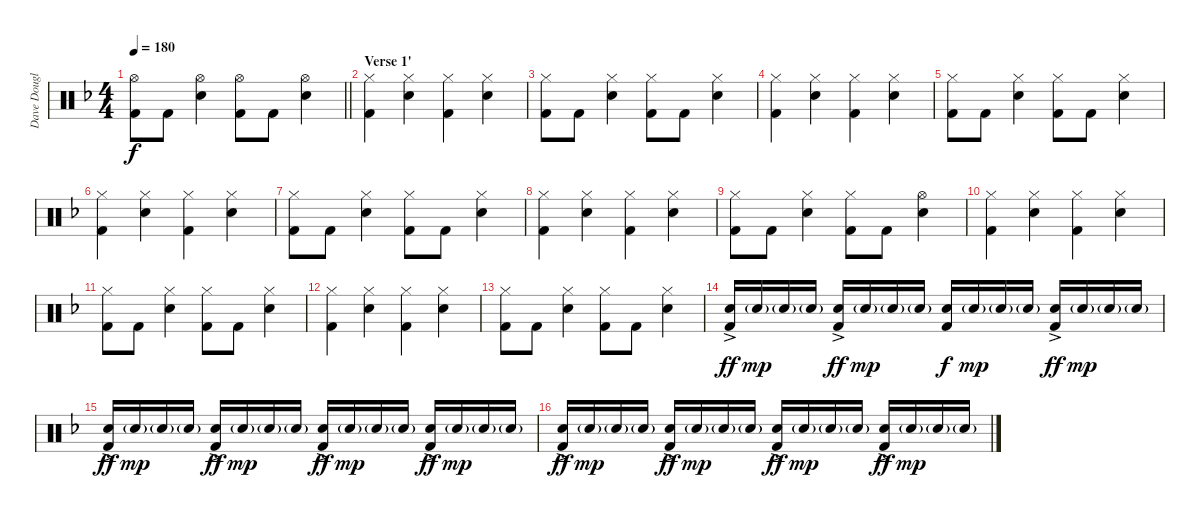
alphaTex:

\track ("Dave Douglas (Drum)" "Dave Dougl") {instrument percussion}
\staff {score}
\articulation defaults
\ts (4 4)
\tempo 180
\clef neutral
\barLineRight lightlight
\ks dminor
("Hi-Hat (open)" "Kick (hit) 2").8{dy f} "Kick (hit) 2".8 ("Hi-Hat (open)" "Snare (hit) 2").4 ("Hi-Hat (open)" "Kick (hit) 2").8 "Kick (hit) 2".8 ("Hi-Hat (open)" "Snare (hit) 2").4 |
\section ("" "Verse 1'")
("Hi-Hat (closed)" "Kick (hit) 2").4 ("Hi-Hat (closed)" "Snare (hit) 2").4 ("Hi-Hat (closed)" "Kick (hit) 2").4 ("Hi-Hat (closed)" "Snare (hit) 2").4 |
("Hi-Hat (closed)" "Kick (hit) 2").8 "Kick (hit) 2".8 ("Hi-Hat (closed)" "Snare (hit) 2").4 ("Hi-Hat (closed)" "Kick (hit) 2").8 "Kick (hit) 2".8 ("Hi-Hat (closed)" "Snare (hit) 2").4 |
("Hi-Hat (closed)" "Kick (hit) 2").4 ("Hi-Hat (closed)" "Snare (hit) 2").4 ("Hi-Hat (closed)" "Kick (hit) 2").4 ("Hi-Hat (closed)" "Snare (hit) 2").4 |
("Hi-Hat (closed)" "Kick (hit) 2").8 "Kick (hit) 2".8 ("Hi-Hat (closed)" "Snare (hit) 2").4 ("Hi-Hat (closed)" "Kick (hit) 2").8 "Kick (hit) 2".8 ("Hi-Hat (closed)" "Snare (hit) 2").4 |
("Hi-Hat (closed)" "Kick (hit) 2").4 ("Hi-Hat (closed)" "Snare (hit) 2").4 ("Hi-Hat (closed)" "Kick (hit) 2").4 ("Hi-Hat (closed)" "Snare (hit) 2").4 |
("Hi-Hat (closed)" "Kick (hit) 2").8 "Kick (hit) 2".8 ("Hi-Hat (closed)" "Snare (hit) 2").4 ("Hi-Hat (closed)" "Kick (hit) 2").8 "Kick (hit) 2".8 ("Hi-Hat (closed)" "Snare (hit) 2").4 |
("Hi-Hat (closed)" "Kick (hit) 2").4 ("Hi-Hat (closed)" "Snare (hit) 2").4 ("Hi-Hat (closed)" "Kick (hit) 2").4 ("Hi-Hat (closed)" "Snare (hit) 2").4 |
("Hi-Hat (closed)" "Kick (hit) 2").8 "Kick (hit) 2".8 ("Hi-Hat (closed)" "Snare (hit) 2").4 ("Hi-Hat (closed)" "Kick (hit) 2").8 "Kick (hit) 2".8 ("Hi-Hat (open)" "Snare (hit) 2").4 |
("Hi-Hat (closed)" "Kick (hit) 2").4 ("Hi-Hat (closed)" "Snare (hit) 2").4 ("Hi-Hat (closed)" "Kick (hit) 2").4 ("Hi-Hat (closed)" "Snare (hit) 2").4 |
("Hi-Hat (closed)" "Kick (hit) 2").8 "Kick (hit) 2".8 ("Hi-Hat (closed)" "Snare (hit) 2").4 ("Hi-Hat (closed)" "Kick (hit) 2").8 "Kick (hit) 2".8 ("Hi-Hat (closed)" "Snare (hit) 2").4 |
("Hi-Hat (closed)" "Kick (hit) 2").4 ("Hi-Hat (closed)" "Snare (hit) 2").4 ("Hi-Hat (closed)" "Kick (hit) 2").4 ("Hi-Hat (closed)" "Snare (hit) 2").4 |
("Hi-Hat (closed)" "Kick (hit) 2").8 "Kick (hit) 2".8 ("Hi-Hat (closed)" "Snare (hit) 2").4 ("Hi-Hat (closed)" "Kick (hit) 2").8 "Kick (hit) 2".8 ("Hi-Hat (closed)" "Snare (hit) 2").4 |
("Snare (hit) 2"{ac} "Kick (hit) 2").16{dy ff} "Snare (hit) 2"{g}.16{dy mp} "Snare (hit) 2"{g}.16 "Snare (hit) 2"{g}.16 ("Snare (hit) 2"{ac} "Kick (hit) 2").16{dy ff} "Snare (hit) 2"{g}.16{dy mp} "Snare (hit) 2"{g}.16 "Snare (hit) 2"{g}.16 ("Snare (hit) 2" "Kick (hit) 2").16{dy f} "Snare (hit) 2"{g}.16{dy mp} "Snare (hit) 2"{g}.16 "Snare (hit) 2"{g}.16 ("Snare (hit) 2"{ac} "Kick (hit) 2").16{dy ff} "Snare (hit) 2"{g}.16{dy mp} "Snare (hit) 2"{g}.16 "Snare (hit) 2"{g}.16 |
("Snare (hit) 2"{ac} "Kick (hit) 2").16{dy ff} "Snare (hit) 2"{g}.16{dy mp} "Snare (hit) 2"{g}.16 "Snare (hit) 2"{g}.16 ("Snare (hit) 2"{ac} "Kick (hit) 2").16{dy ff} "Snare (hit) 2"{g}.16{dy mp} "Snare (hit) 2"{g}.16 "Snare (hit) 2"{g}.16 ("Snare (hit) 2"{ac} "Kick (hit) 2").16{dy ff} "Snare (hit) 2"{g}.16{dy mp} "Snare (hit) 2"{g}.16 "Snare (hit) 2"{g}.16 ("Snare (hit) 2"{ac} "Kick (hit) 2").16{dy ff} "Snare (hit) 2"{g}.16{dy mp} "Snare (hit) 2"{g}.16 "Snare (hit) 2"{g}.16 |
("Snare (hit) 2"{ac} "Kick (hit) 2").16{dy ff} "Snare (hit) 2"{g}.16{dy mp} "Snare (hit) 2"{g}.16 "Snare (hit) 2"{g}.16 ("Snare (hit) 2"{ac} "Kick (hit) 2").16{dy ff} "Snare (hit) 2"{g}.16{dy mp} "Snare (hit) 2"{g}.16 "Snare (hit) 2"{g}.16 ("Snare (hit) 2"{ac} "Kick (hit) 2").16{dy ff} "Snare (hit) 2"{g}.16{dy mp} "Snare (hit) 2"{g}.16 "Snare (hit) 2"{g}.16 ("Snare (hit) 2"{ac} "Kick (hit) 2").16{dy ff} "Snare (hit) 2"{g}.16{dy mp} "Snare (hit) 2"{g}.16 "Snare (hit) 2"{g}.16
